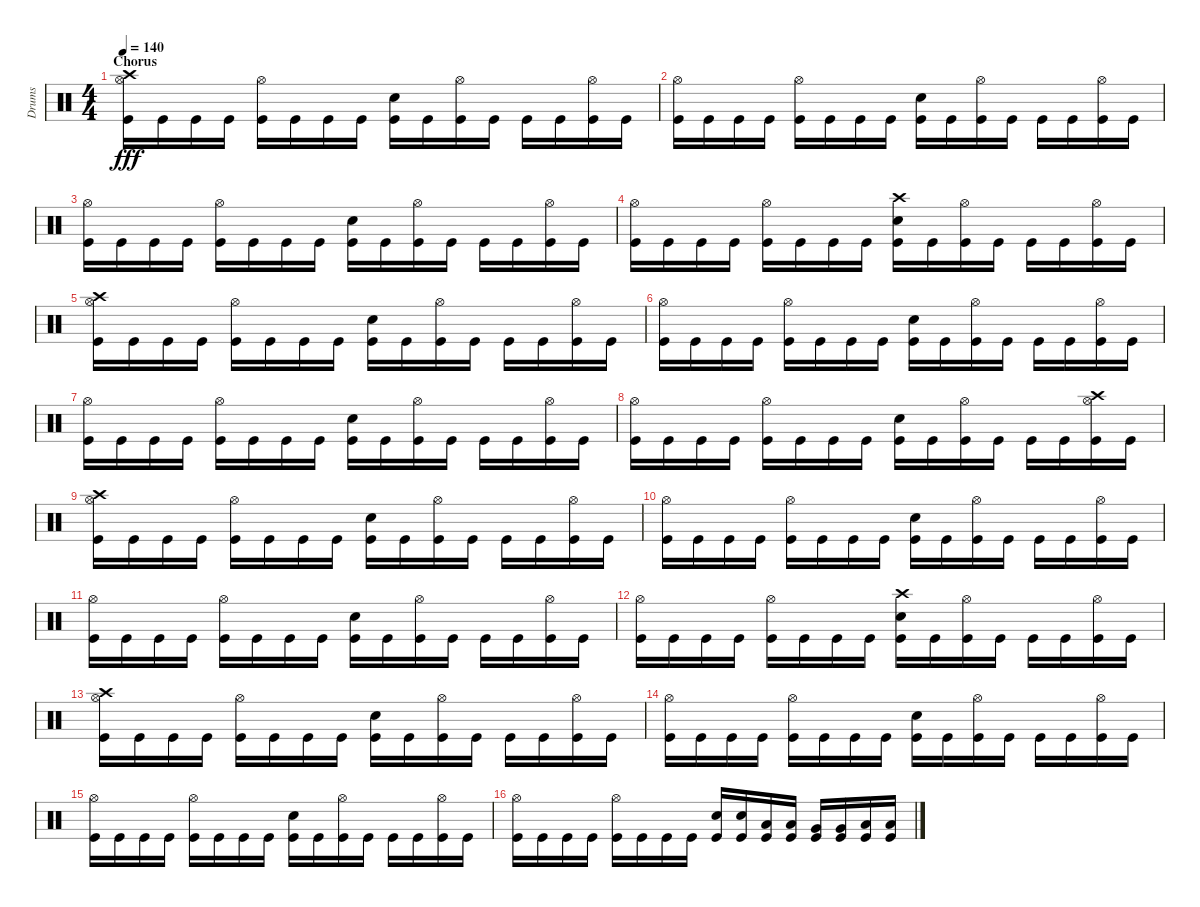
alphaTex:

\track ("Drums" "Drums") {instrument percussion}
\staff {score}
\articulation defaults
\ts (4 4)
\section ("" "Chorus")
\tempo 140
\clef neutral
\ks c
("Kick (hit)" "Hi-Hat (open)" "Crash high (hit)").16{dy fff} "Kick (hit)".16 "Kick (hit)".16 "Kick (hit)".16 ("Kick (hit)" "Hi-Hat (open)").16 "Kick (hit)".16 "Kick (hit)".16 "Kick (hit)".16 ("Kick (hit)" "Snare (hit) 2").16 "Kick (hit)".16 ("Kick (hit)" "Hi-Hat (open)").16 "Kick (hit)".16 "Kick (hit)".16 "Kick (hit)".16 ("Kick (hit)" "Hi-Hat (open)").16 "Kick (hit)".16 |
("Kick (hit)" "Hi-Hat (open)").16 "Kick (hit)".16 "Kick (hit)".16 "Kick (hit)".16 ("Kick (hit)" "Hi-Hat (open)").16 "Kick (hit)".16 "Kick (hit)".16 "Kick (hit)".16 ("Kick (hit)" "Snare (hit) 2").16 "Kick (hit)".16 ("Kick (hit)" "Hi-Hat (open)").16 "Kick (hit)".16 "Kick (hit)".16 "Kick (hit)".16 ("Kick (hit)" "Hi-Hat (open)").16 "Kick (hit)".16 |
("Kick (hit)" "Hi-Hat (open)").16 "Kick (hit)".16 "Kick (hit)".16 "Kick (hit)".16 ("Kick (hit)" "Hi-Hat (open)").16 "Kick (hit)".16 "Kick (hit)".16 "Kick (hit)".16 ("Kick (hit)" "Snare (hit) 2").16 "Kick (hit)".16 ("Kick (hit)" "Hi-Hat (open)").16 "Kick (hit)".16 "Kick (hit)".16 "Kick (hit)".16 ("Kick (hit)" "Hi-Hat (open)").16 "Kick (hit)".16 |
("Kick (hit)" "Hi-Hat (open)").16 "Kick (hit)".16 "Kick (hit)".16 "Kick (hit)".16 ("Kick (hit)" "Hi-Hat (open)").16 "Kick (hit)".16 "Kick (hit)".16 "Kick (hit)".16 ("Kick (hit)" "Snare (hit) 2" "Crash high (hit)").16 "Kick (hit)".16 ("Kick (hit)" "Hi-Hat (open)").16 "Kick (hit)".16 "Kick (hit)".16 "Kick (hit)".16 ("Kick (hit)" "Hi-Hat (open)").16 "Kick (hit)".16 |
("Kick (hit)" "Crash high (hit)" "Hi-Hat (open)").16 "Kick (hit)".16 "Kick (hit)".16 "Kick (hit)".16 ("Kick (hit)" "Hi-Hat (open)").16 "Kick (hit)".16 "Kick (hit)".16 "Kick (hit)".16 ("Kick (hit)" "Snare (hit) 2").16 "Kick (hit)".16 ("Kick (hit)" "Hi-Hat (open)").16 "Kick (hit)".16 "Kick (hit)".16 "Kick (hit)".16 ("Kick (hit)" "Hi-Hat (open)").16 "Kick (hit)".16 |
("Kick (hit)" "Hi-Hat (open)").16 "Kick (hit)".16 "Kick (hit)".16 "Kick (hit)".16 ("Kick (hit)" "Hi-Hat (open)").16 "Kick (hit)".16 "Kick (hit)".16 "Kick (hit)".16 ("Kick (hit)" "Snare (hit) 2").16 "Kick (hit)".16 ("Kick (hit)" "Hi-Hat (open)").16 "Kick (hit)".16 "Kick (hit)".16 "Kick (hit)".16 ("Kick (hit)" "Hi-Hat (open)").16 "Kick (hit)".16 |
("Kick (hit)" "Hi-Hat (open)").16 "Kick (hit)".16 "Kick (hit)".16 "Kick (hit)".16 ("Kick (hit)" "Hi-Hat (open)").16 "Kick (hit)".16 "Kick (hit)".16 "Kick (hit)".16 ("Kick (hit)" "Snare (hit) 2").16 "Kick (hit)".16 ("Kick (hit)" "Hi-Hat (open)").16 "Kick (hit)".16 "Kick (hit)".16 "Kick (hit)".16 ("Kick (hit)" "Hi-Hat (open)").16 "Kick (hit)".16 |
("Kick (hit)" "Hi-Hat (open)").16 "Kick (hit)".16 "Kick (hit)".16 "Kick (hit)".16 ("Kick (hit)" "Hi-Hat (open)").16 "Kick (hit)".16 "Kick (hit)".16 "Kick (hit)".16 ("Kick (hit)" "Snare (hit) 2").16 "Kick (hit)".16 ("Kick (hit)" "Hi-Hat (open)").16 "Kick (hit)".16 "Kick (hit)".16 "Kick (hit)".16 ("Kick (hit)" "Crash high (hit)" "Hi-Hat (open)").16 "Kick (hit)".16 |
("Kick (hit)" "Hi-Hat (open)" "Crash high (hit)").16 "Kick (hit)".16 "Kick (hit)".16 "Kick (hit)".16 ("Kick (hit)" "Hi-Hat (open)").16 "Kick (hit)".16 "Kick (hit)".16 "Kick (hit)".16 ("Kick (hit)" "Snare (hit) 2").16 "Kick (hit)".16 ("Kick (hit)" "Hi-Hat (open)").16 "Kick (hit)".16 "Kick (hit)".16 "Kick (hit)".16 ("Kick (hit)" "Hi-Hat (open)").16 "Kick (hit)".16 |
("Kick (hit)" "Hi-Hat (open)").16 "Kick (hit)".16 "Kick (hit)".16 "Kick (hit)".16 ("Kick (hit)" "Hi-Hat (open)").16 "Kick (hit)".16 "Kick (hit)".16 "Kick (hit)".16 ("Kick (hit)" "Snare (hit) 2").16 "Kick (hit)".16 ("Kick (hit)" "Hi-Hat (open)").16 "Kick (hit)".16 "Kick (hit)".16 "Kick (hit)".16 ("Kick (hit)" "Hi-Hat (open)").16 "Kick (hit)".16 |
("Kick (hit)" "Hi-Hat (open)").16 "Kick (hit)".16 "Kick (hit)".16 "Kick (hit)".16 ("Kick (hit)" "Hi-Hat (open)").16 "Kick (hit)".16 "Kick (hit)".16 "Kick (hit)".16 ("Kick (hit)" "Snare (hit) 2").16 "Kick (hit)".16 ("Kick (hit)" "Hi-Hat (open)").16 "Kick (hit)".16 "Kick (hit)".16 "Kick (hit)".16 ("Kick (hit)" "Hi-Hat (open)").16 "Kick (hit)".16 |
("Kick (hit)" "Hi-Hat (open)").16 "Kick (hit)".16 "Kick (hit)".16 "Kick (hit)".16 ("Kick (hit)" "Hi-Hat (open)").16 "Kick (hit)".16 "Kick (hit)".16 "Kick (hit)".16 ("Kick (hit)" "Snare (hit) 2" "Crash high (hit)").16 "Kick (hit)".16 ("Kick (hit)" "Hi-Hat (open)").16 "Kick (hit)".16 "Kick (hit)".16 "Kick (hit)".16 ("Kick (hit)" "Hi-Hat (open)").16 "Kick (hit)".16 |
("Kick (hit)" "Crash high (hit)" "Hi-Hat (open)").16 "Kick (hit)".16 "Kick (hit)".16 "Kick (hit)".16 ("Kick (hit)" "Hi-Hat (open)").16 "Kick (hit)".16 "Kick (hit)".16 "Kick (hit)".16 ("Kick (hit)" "Snare (hit) 2").16 "Kick (hit)".16 ("Kick (hit)" "Hi-Hat (open)").16 "Kick (hit)".16 "Kick (hit)".16 "Kick (hit)".16 ("Kick (hit)" "Hi-Hat (open)").16 "Kick (hit)".16 |
("Kick (hit)" "Hi-Hat (open)").16 "Kick (hit)".16 "Kick (hit)".16 "Kick (hit)".16 ("Kick (hit)" "Hi-Hat (open)").16 "Kick (hit)".16 "Kick (hit)".16 "Kick (hit)".16 ("Kick (hit)" "Snare (hit) 2").16 "Kick (hit)".16 ("Kick (hit)" "Hi-Hat (open)").16 "Kick (hit)".16 "Kick (hit)".16 "Kick (hit)".16 ("Kick (hit)" "Hi-Hat (open)").16 "Kick (hit)".16 |
("Kick (hit)" "Hi-Hat (open)").16 "Kick (hit)".16 "Kick (hit)".16 "Kick (hit)".16 ("Kick (hit)" "Hi-Hat (open)").16 "Kick (hit)".16 "Kick (hit)".16 "Kick (hit)".16 ("Kick (hit)" "Snare (hit) 2").16 "Kick (hit)".16 ("Kick (hit)" "Hi-Hat (open)").16 "Kick (hit)".16 "Kick (hit)".16 "Kick (hit)".16 ("Kick (hit)" "Hi-Hat (open)").16 "Kick (hit)".16 |
("Kick (hit)" "Hi-Hat (open)").16 "Kick (hit)".16 "Kick (hit)".16 "Kick (hit)".16 ("Kick (hit)" "Hi-Hat (open)").16 "Kick (hit)".16 "Kick (hit)".16 "Kick (hit)".16 ("Kick (hit)" "Snare (hit) 2").16 ("Kick (hit)" "Snare (hit) 2").16 ("Kick (hit)" "Low Tom (hit)").16 ("Kick (hit)" "Low Tom (hit)").16 ("Kick (hit)" "Very Low Tom (hit)").16 ("Kick (hit)" "Very Low Tom (hit)").16 ("Kick (hit)" "Low Floor Tom (hit)").16 ("Kick (hit)" "Low Floor Tom (hit)").16
